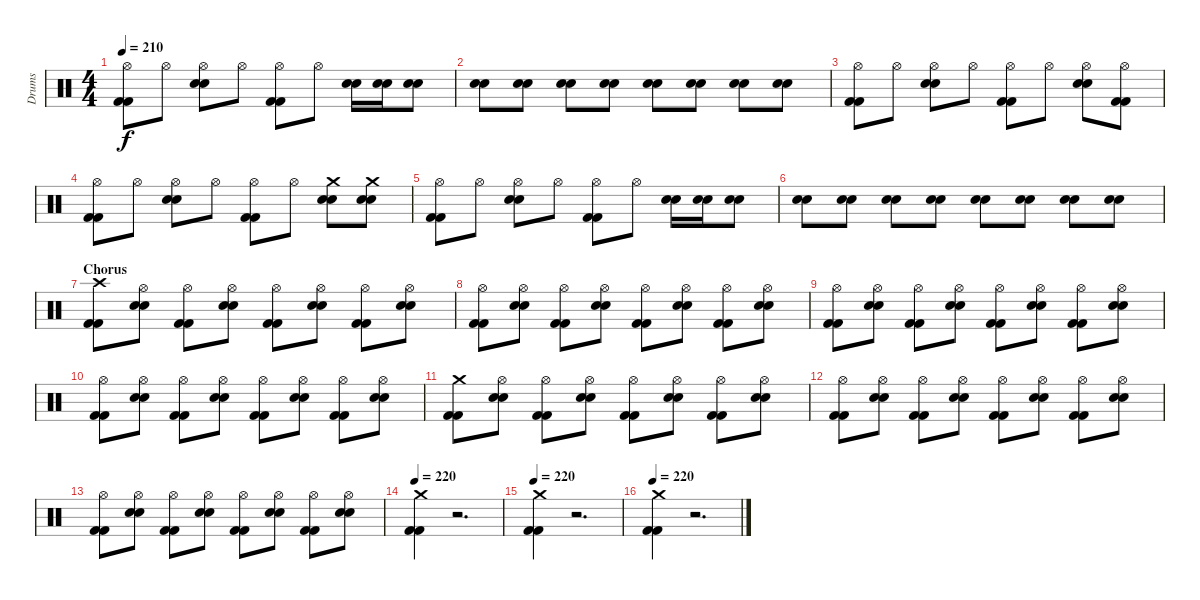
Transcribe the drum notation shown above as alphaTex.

\track ("Drums" "Drums") {instrument percussion}
\staff {score}
\articulation defaults
\ts (4 4)
\tempo 210
\clef neutral
\ks c
("Hi-Hat (open)" "Kick (hit) 2" "Kick (hit) 2").8{dy f} "Hi-Hat (open)".8 ("Hi-Hat (open)" "Snare (hit) 2" "Snare (hit) 2").8 "Hi-Hat (open)".8 ("Hi-Hat (open)" "Kick (hit) 2" "Kick (hit) 2").8 "Hi-Hat (open)".8 ("Snare (hit) 2" "Snare (hit) 2").16 ("Snare (hit) 2" "Snare (hit) 2").16 ("Snare (hit) 2" "Snare (hit) 2").8 |
("Snare (hit) 2" "Snare (hit) 2").8 ("Snare (hit) 2" "Snare (hit) 2").8 ("Snare (hit) 2" "Snare (hit) 2").8 ("Snare (hit) 2" "Snare (hit) 2").8 ("Snare (hit) 2" "Snare (hit) 2").8 ("Snare (hit) 2" "Snare (hit) 2").8 ("Snare (hit) 2" "Snare (hit) 2").8 ("Snare (hit) 2" "Snare (hit) 2").8 |
("Hi-Hat (open)" "Kick (hit) 2" "Kick (hit) 2").8 "Hi-Hat (open)".8 ("Hi-Hat (open)" "Snare (hit) 2" "Snare (hit) 2").8 "Hi-Hat (open)".8 ("Hi-Hat (open)" "Kick (hit) 2" "Kick (hit) 2").8 "Hi-Hat (open)".8 ("Hi-Hat (open)" "Snare (hit) 2" "Snare (hit) 2").8 ("Hi-Hat (open)" "Kick (hit) 2" "Kick (hit) 2").8 |
("Hi-Hat (open)" "Kick (hit) 2" "Kick (hit) 2").8 "Hi-Hat (open)".8 ("Hi-Hat (open)" "Snare (hit) 2" "Snare (hit) 2").8 "Hi-Hat (open)".8 ("Hi-Hat (open)" "Kick (hit) 2" "Kick (hit) 2").8 "Hi-Hat (open)".8 ("Crash medium (hit)" "Snare (hit) 2" "Snare (hit) 2").8 ("Crash medium (hit)" "Snare (hit) 2" "Snare (hit) 2").8 |
("Hi-Hat (open)" "Kick (hit) 2" "Kick (hit) 2").8 "Hi-Hat (open)".8 ("Hi-Hat (open)" "Snare (hit) 2" "Snare (hit) 2").8 "Hi-Hat (open)".8 ("Hi-Hat (open)" "Kick (hit) 2" "Kick (hit) 2").8 "Hi-Hat (open)".8 ("Snare (hit) 2" "Snare (hit) 2").16 ("Snare (hit) 2" "Snare (hit) 2").16 ("Snare (hit) 2" "Snare (hit) 2").8 |
("Snare (hit) 2" "Snare (hit) 2").8 ("Snare (hit) 2" "Snare (hit) 2").8 ("Snare (hit) 2" "Snare (hit) 2").8 ("Snare (hit) 2" "Snare (hit) 2").8 ("Snare (hit) 2" "Snare (hit) 2").8 ("Snare (hit) 2" "Snare (hit) 2").8 ("Snare (hit) 2" "Snare (hit) 2").8 ("Snare (hit) 2" "Snare (hit) 2").8 |
\section ("" "Chorus")
("Crash high (hit)" "Kick (hit) 2" "Kick (hit) 2").8 ("Hi-Hat (open)" "Snare (hit) 2" "Snare (hit) 2").8 ("Hi-Hat (open)" "Kick (hit) 2" "Kick (hit) 2").8 ("Hi-Hat (open)" "Snare (hit) 2" "Snare (hit) 2").8 ("Hi-Hat (open)" "Kick (hit) 2" "Kick (hit) 2").8 ("Hi-Hat (open)" "Snare (hit) 2" "Snare (hit) 2").8 ("Hi-Hat (open)" "Kick (hit) 2" "Kick (hit) 2").8 ("Hi-Hat (open)" "Snare (hit) 2" "Snare (hit) 2").8 |
("Hi-Hat (open)" "Kick (hit) 2" "Kick (hit) 2").8 ("Hi-Hat (open)" "Snare (hit) 2" "Snare (hit) 2").8 ("Hi-Hat (open)" "Kick (hit) 2" "Kick (hit) 2").8 ("Hi-Hat (open)" "Snare (hit) 2" "Snare (hit) 2").8 ("Hi-Hat (open)" "Kick (hit) 2" "Kick (hit) 2").8 ("Hi-Hat (open)" "Snare (hit) 2" "Snare (hit) 2").8 ("Hi-Hat (open)" "Kick (hit) 2" "Kick (hit) 2").8 ("Hi-Hat (open)" "Snare (hit) 2" "Snare (hit) 2").8 |
("Hi-Hat (open)" "Kick (hit) 2" "Kick (hit) 2").8 ("Hi-Hat (open)" "Snare (hit) 2" "Snare (hit) 2").8 ("Hi-Hat (open)" "Kick (hit) 2" "Kick (hit) 2").8 ("Hi-Hat (open)" "Snare (hit) 2" "Snare (hit) 2").8 ("Hi-Hat (open)" "Kick (hit) 2" "Kick (hit) 2").8 ("Hi-Hat (open)" "Snare (hit) 2" "Snare (hit) 2").8 ("Hi-Hat (open)" "Kick (hit) 2" "Kick (hit) 2").8 ("Hi-Hat (open)" "Snare (hit) 2" "Snare (hit) 2").8 |
("Hi-Hat (open)" "Kick (hit) 2" "Kick (hit) 2").8 ("Hi-Hat (open)" "Snare (hit) 2" "Snare (hit) 2").8 ("Hi-Hat (open)" "Kick (hit) 2" "Kick (hit) 2").8 ("Hi-Hat (open)" "Snare (hit) 2" "Snare (hit) 2").8 ("Hi-Hat (open)" "Kick (hit) 2" "Kick (hit) 2").8 ("Hi-Hat (open)" "Snare (hit) 2" "Snare (hit) 2").8 ("Hi-Hat (open)" "Kick (hit) 2" "Kick (hit) 2").8 ("Hi-Hat (open)" "Snare (hit) 2" "Snare (hit) 2").8 |
("Crash medium (hit)" "Kick (hit) 2" "Kick (hit) 2").8 ("Hi-Hat (open)" "Snare (hit) 2" "Snare (hit) 2").8 ("Hi-Hat (open)" "Kick (hit) 2" "Kick (hit) 2").8 ("Hi-Hat (open)" "Snare (hit) 2" "Snare (hit) 2").8 ("Hi-Hat (open)" "Kick (hit) 2" "Kick (hit) 2").8 ("Hi-Hat (open)" "Snare (hit) 2" "Snare (hit) 2").8 ("Hi-Hat (open)" "Kick (hit) 2" "Kick (hit) 2").8 ("Hi-Hat (open)" "Snare (hit) 2" "Snare (hit) 2").8 |
("Hi-Hat (open)" "Kick (hit) 2" "Kick (hit) 2").8 ("Hi-Hat (open)" "Snare (hit) 2" "Snare (hit) 2").8 ("Hi-Hat (open)" "Kick (hit) 2" "Kick (hit) 2").8 ("Hi-Hat (open)" "Snare (hit) 2" "Snare (hit) 2").8 ("Hi-Hat (open)" "Kick (hit) 2" "Kick (hit) 2").8 ("Hi-Hat (open)" "Snare (hit) 2" "Snare (hit) 2").8 ("Hi-Hat (open)" "Kick (hit) 2" "Kick (hit) 2").8 ("Hi-Hat (open)" "Snare (hit) 2" "Snare (hit) 2").8 |
("Hi-Hat (open)" "Kick (hit) 2" "Kick (hit) 2").8 ("Hi-Hat (open)" "Snare (hit) 2" "Snare (hit) 2").8 ("Hi-Hat (open)" "Kick (hit) 2" "Kick (hit) 2").8 ("Hi-Hat (open)" "Snare (hit) 2" "Snare (hit) 2").8 ("Hi-Hat (open)" "Kick (hit) 2" "Kick (hit) 2").8 ("Hi-Hat (open)" "Snare (hit) 2" "Snare (hit) 2").8 ("Hi-Hat (open)" "Kick (hit) 2" "Kick (hit) 2").8 ("Hi-Hat (open)" "Snare (hit) 2" "Snare (hit) 2").8 |
\tempo 220
("Crash medium (hit)" "Kick (hit) 2" "Kick (hit) 2").4 r.2{d} |
\tempo 220
("Crash medium (hit)" "Kick (hit) 2" "Kick (hit) 2").4 r.2{d} |
\tempo 220
("Crash medium (hit)" "Kick (hit) 2" "Kick (hit) 2").4 r.2{d}
